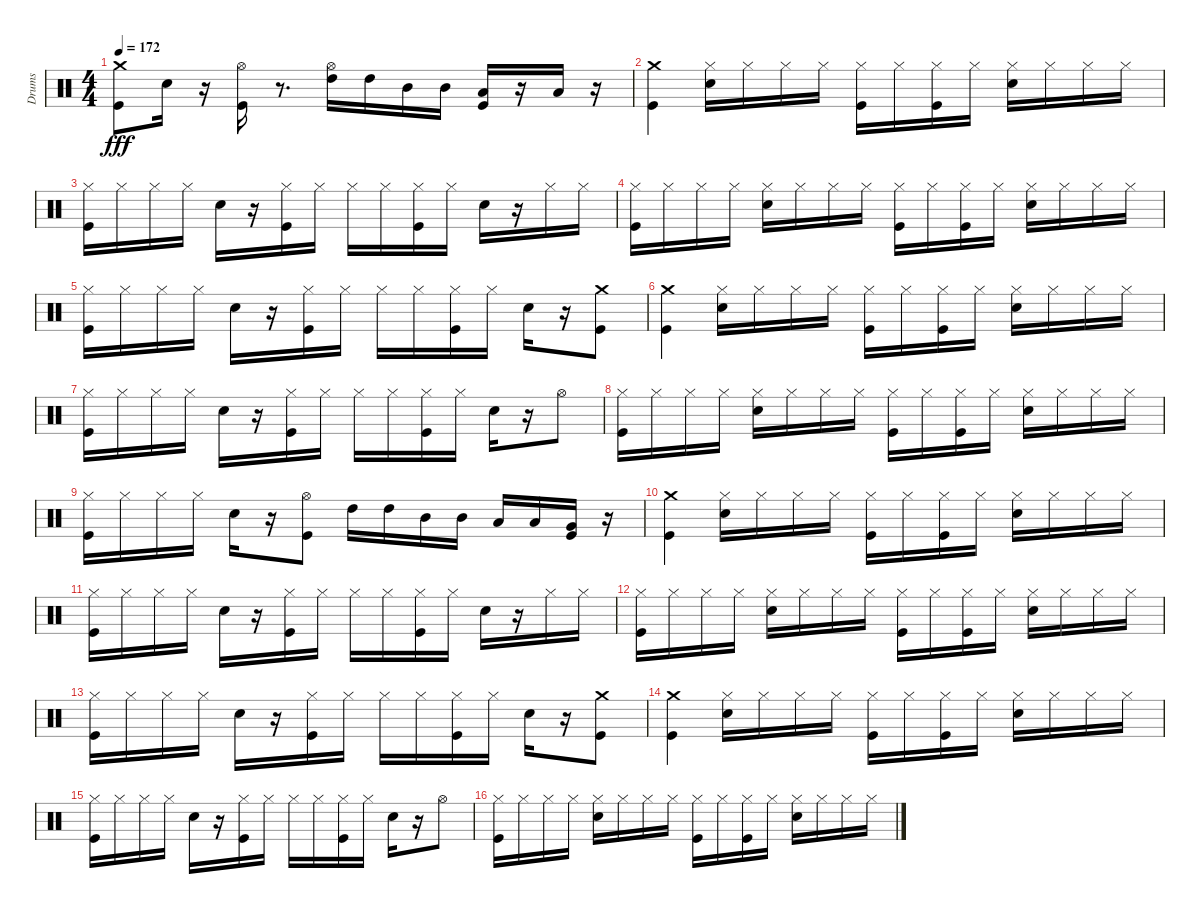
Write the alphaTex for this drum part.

\track ("Drums" "Drums") {instrument percussion}
\staff {score}
\articulation defaults
\ts (4 4)
\tempo 172
\clef neutral
\ks c
("Crash medium (hit)" "Kick (hit)").8{dy fff} "Snare (hit) 2".16 r.16 ("Hi-Hat (open)" "Kick (hit)").16 r.8{d} ("Hi-Hat (open)" "High Tom (hit)").16 "High Tom (hit)".16 "Mid Tom (hit)".16 "Mid Tom (hit)".16 ("Kick (hit)" "Low Tom (hit)").16 r.16 "Low Tom (hit)".16 r.16 |
("Crash medium (hit)" "Kick (hit)").4 ("Hi-Hat (closed)" "Snare (hit) 2").16 "Hi-Hat (closed)".16 "Hi-Hat (closed)".16 "Hi-Hat (closed)".16 ("Hi-Hat (closed)" "Kick (hit)").16 "Hi-Hat (closed)".16 ("Hi-Hat (closed)" "Kick (hit)").16 "Hi-Hat (closed)".16 ("Hi-Hat (closed)" "Snare (hit) 2").16 "Hi-Hat (closed)".16 "Hi-Hat (closed)".16 "Hi-Hat (closed)".16 |
("Hi-Hat (closed)" "Kick (hit)").16 "Hi-Hat (closed)".16 "Hi-Hat (closed)".16 "Hi-Hat (closed)".16 "Snare (hit) 2".16 r.16 ("Hi-Hat (closed)" "Kick (hit)").16 "Hi-Hat (closed)".16 "Hi-Hat (closed)".16 "Hi-Hat (closed)".16 ("Hi-Hat (closed)" "Kick (hit)").16 "Hi-Hat (closed)".16 "Snare (hit) 2".16 r.16 "Hi-Hat (closed)".16 "Hi-Hat (closed)".16 |
("Hi-Hat (closed)" "Kick (hit)").16 "Hi-Hat (closed)".16 "Hi-Hat (closed)".16 "Hi-Hat (closed)".16 ("Hi-Hat (closed)" "Snare (hit) 2").16 "Hi-Hat (closed)".16 "Hi-Hat (closed)".16 "Hi-Hat (closed)".16 ("Hi-Hat (closed)" "Kick (hit)").16 "Hi-Hat (closed)".16 ("Hi-Hat (closed)" "Kick (hit)").16 "Hi-Hat (closed)".16 ("Hi-Hat (closed)" "Snare (hit) 2").16 "Hi-Hat (closed)".16 "Hi-Hat (closed)".16 "Hi-Hat (closed)".16 |
("Hi-Hat (closed)" "Kick (hit)").16 "Hi-Hat (closed)".16 "Hi-Hat (closed)".16 "Hi-Hat (closed)".16 "Snare (hit) 2".16 r.16 ("Hi-Hat (closed)" "Kick (hit)").16 "Hi-Hat (closed)".16 "Hi-Hat (closed)".16 "Hi-Hat (closed)".16 ("Hi-Hat (closed)" "Kick (hit)").16 "Hi-Hat (closed)".16 "Snare (hit) 2".16 r.16 ("Crash medium (hit)" "Kick (hit)").8 |
("Crash medium (hit)" "Kick (hit)").4 ("Hi-Hat (closed)" "Snare (hit) 2").16 "Hi-Hat (closed)".16 "Hi-Hat (closed)".16 "Hi-Hat (closed)".16 ("Hi-Hat (closed)" "Kick (hit)").16 "Hi-Hat (closed)".16 ("Hi-Hat (closed)" "Kick (hit)").16 "Hi-Hat (closed)".16 ("Hi-Hat (closed)" "Snare (hit) 2").16 "Hi-Hat (closed)".16 "Hi-Hat (closed)".16 "Hi-Hat (closed)".16 |
("Hi-Hat (closed)" "Kick (hit)").16 "Hi-Hat (closed)".16 "Hi-Hat (closed)".16 "Hi-Hat (closed)".16 "Snare (hit) 2".16 r.16 ("Hi-Hat (closed)" "Kick (hit)").16 "Hi-Hat (closed)".16 "Hi-Hat (closed)".16 "Hi-Hat (closed)".16 ("Hi-Hat (closed)" "Kick (hit)").16 "Hi-Hat (closed)".16 "Snare (hit) 2".16 r.16 "Hi-Hat (open)".8 |
("Hi-Hat (closed)" "Kick (hit)").16 "Hi-Hat (closed)".16 "Hi-Hat (closed)".16 "Hi-Hat (closed)".16 ("Hi-Hat (closed)" "Snare (hit) 2").16 "Hi-Hat (closed)".16 "Hi-Hat (closed)".16 "Hi-Hat (closed)".16 ("Hi-Hat (closed)" "Kick (hit)").16 "Hi-Hat (closed)".16 ("Hi-Hat (closed)" "Kick (hit)").16 "Hi-Hat (closed)".16 ("Hi-Hat (closed)" "Snare (hit) 2").16 "Hi-Hat (closed)".16 "Hi-Hat (closed)".16 "Hi-Hat (closed)".16 |
("Hi-Hat (closed)" "Kick (hit)").16 "Hi-Hat (closed)".16 "Hi-Hat (closed)".16 "Hi-Hat (closed)".16 "Snare (hit) 2".16 r.16 ("Hi-Hat (open)" "Kick (hit)").8 "High Tom (hit)".16 "High Tom (hit)".16 "Mid Tom (hit)".16 "Mid Tom (hit)".16 "Low Tom (hit)".16 "Low Tom (hit)".16 ("Kick (hit)" "Very Low Tom (hit)").16 r.16 |
("Crash medium (hit)" "Kick (hit)").4 ("Hi-Hat (closed)" "Snare (hit) 2").16 "Hi-Hat (closed)".16 "Hi-Hat (closed)".16 "Hi-Hat (closed)".16 ("Hi-Hat (closed)" "Kick (hit)").16 "Hi-Hat (closed)".16 ("Hi-Hat (closed)" "Kick (hit)").16 "Hi-Hat (closed)".16 ("Hi-Hat (closed)" "Snare (hit) 2").16 "Hi-Hat (closed)".16 "Hi-Hat (closed)".16 "Hi-Hat (closed)".16 |
("Hi-Hat (closed)" "Kick (hit)").16 "Hi-Hat (closed)".16 "Hi-Hat (closed)".16 "Hi-Hat (closed)".16 "Snare (hit) 2".16 r.16 ("Hi-Hat (closed)" "Kick (hit)").16 "Hi-Hat (closed)".16 "Hi-Hat (closed)".16 "Hi-Hat (closed)".16 ("Hi-Hat (closed)" "Kick (hit)").16 "Hi-Hat (closed)".16 "Snare (hit) 2".16 r.16 "Hi-Hat (closed)".16 "Hi-Hat (closed)".16 |
("Hi-Hat (closed)" "Kick (hit)").16 "Hi-Hat (closed)".16 "Hi-Hat (closed)".16 "Hi-Hat (closed)".16 ("Hi-Hat (closed)" "Snare (hit) 2").16 "Hi-Hat (closed)".16 "Hi-Hat (closed)".16 "Hi-Hat (closed)".16 ("Hi-Hat (closed)" "Kick (hit)").16 "Hi-Hat (closed)".16 ("Hi-Hat (closed)" "Kick (hit)").16 "Hi-Hat (closed)".16 ("Hi-Hat (closed)" "Snare (hit) 2").16 "Hi-Hat (closed)".16 "Hi-Hat (closed)".16 "Hi-Hat (closed)".16 |
("Hi-Hat (closed)" "Kick (hit)").16 "Hi-Hat (closed)".16 "Hi-Hat (closed)".16 "Hi-Hat (closed)".16 "Snare (hit) 2".16 r.16 ("Hi-Hat (closed)" "Kick (hit)").16 "Hi-Hat (closed)".16 "Hi-Hat (closed)".16 "Hi-Hat (closed)".16 ("Hi-Hat (closed)" "Kick (hit)").16 "Hi-Hat (closed)".16 "Snare (hit) 2".16 r.16 ("Crash medium (hit)" "Kick (hit)").8 |
("Crash medium (hit)" "Kick (hit)").4 ("Hi-Hat (closed)" "Snare (hit) 2").16 "Hi-Hat (closed)".16 "Hi-Hat (closed)".16 "Hi-Hat (closed)".16 ("Hi-Hat (closed)" "Kick (hit)").16 "Hi-Hat (closed)".16 ("Hi-Hat (closed)" "Kick (hit)").16 "Hi-Hat (closed)".16 ("Hi-Hat (closed)" "Snare (hit) 2").16 "Hi-Hat (closed)".16 "Hi-Hat (closed)".16 "Hi-Hat (closed)".16 |
("Hi-Hat (closed)" "Kick (hit)").16 "Hi-Hat (closed)".16 "Hi-Hat (closed)".16 "Hi-Hat (closed)".16 "Snare (hit) 2".16 r.16 ("Hi-Hat (closed)" "Kick (hit)").16 "Hi-Hat (closed)".16 "Hi-Hat (closed)".16 "Hi-Hat (closed)".16 ("Hi-Hat (closed)" "Kick (hit)").16 "Hi-Hat (closed)".16 "Snare (hit) 2".16 r.16 "Hi-Hat (open)".8 |
("Hi-Hat (closed)" "Kick (hit)").16 "Hi-Hat (closed)".16 "Hi-Hat (closed)".16 "Hi-Hat (closed)".16 ("Hi-Hat (closed)" "Snare (hit) 2").16 "Hi-Hat (closed)".16 "Hi-Hat (closed)".16 "Hi-Hat (closed)".16 ("Hi-Hat (closed)" "Kick (hit)").16 "Hi-Hat (closed)".16 ("Hi-Hat (closed)" "Kick (hit)").16 "Hi-Hat (closed)".16 ("Hi-Hat (closed)" "Snare (hit) 2").16 "Hi-Hat (closed)".16 "Hi-Hat (closed)".16 "Hi-Hat (closed)".16
